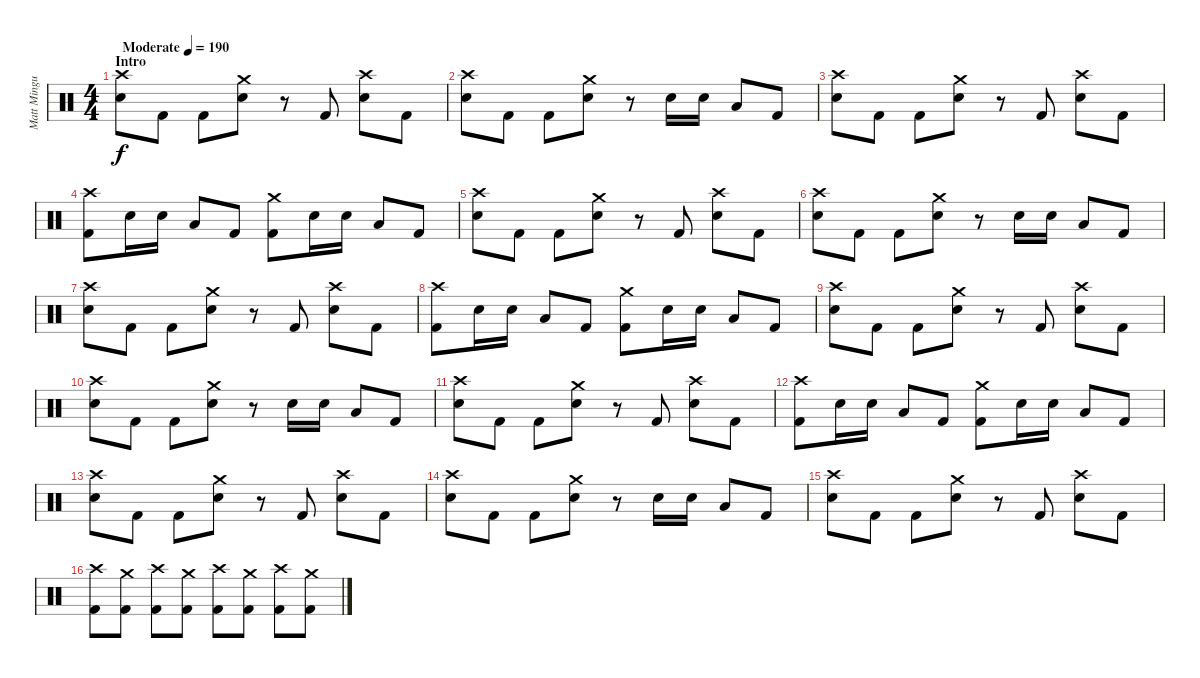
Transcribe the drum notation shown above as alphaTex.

\track ("Matt Mingus (Drums)" "Matt Mingu") {instrument percussion}
\staff {score}
\articulation defaults
\ts (4 4)
\section ("" "Intro")
\tempo (190 "Moderate")
\clef neutral
\ks c
("Crash high (hit)" "Electric Snare (hit)").8{dy f} "Kick (hit) 2".8 "Kick (hit) 2".8 ("Crash medium (hit)" "Electric Snare (hit)").8 r.8 "Kick (hit) 2".8 ("Crash high (hit)" "Electric Snare (hit)").8 "Kick (hit) 2".8 |
("Crash high (hit)" "Electric Snare (hit)").8 "Kick (hit) 2".8 "Kick (hit) 2".8 ("Crash medium (hit)" "Electric Snare (hit)").8 r.8 "Electric Snare (hit)".16 "Electric Snare (hit)".16 "Low Tom (hit)".8 "Kick (hit) 2".8 |
("Crash high (hit)" "Electric Snare (hit)").8 "Kick (hit) 2".8 "Kick (hit) 2".8 ("Crash medium (hit)" "Electric Snare (hit)").8 r.8 "Kick (hit) 2".8 ("Crash high (hit)" "Electric Snare (hit)").8 "Kick (hit) 2".8 |
("Crash high (hit)" "Kick (hit) 2").8 "Electric Snare (hit)".16 "Electric Snare (hit)".16 "Low Tom (hit)".8 "Kick (hit) 2".8 ("Crash medium (hit)" "Kick (hit) 2").8 "Electric Snare (hit)".16 "Electric Snare (hit)".16 "Low Tom (hit)".8 "Kick (hit) 2".8 |
("Crash high (hit)" "Electric Snare (hit)").8 "Kick (hit) 2".8 "Kick (hit) 2".8 ("Crash medium (hit)" "Electric Snare (hit)").8 r.8 "Kick (hit) 2".8 ("Crash high (hit)" "Electric Snare (hit)").8 "Kick (hit) 2".8 |
("Crash high (hit)" "Electric Snare (hit)").8 "Kick (hit) 2".8 "Kick (hit) 2".8 ("Crash medium (hit)" "Electric Snare (hit)").8 r.8 "Electric Snare (hit)".16 "Electric Snare (hit)".16 "Low Tom (hit)".8 "Kick (hit) 2".8 |
("Crash high (hit)" "Electric Snare (hit)").8 "Kick (hit) 2".8 "Kick (hit) 2".8 ("Crash medium (hit)" "Electric Snare (hit)").8 r.8 "Kick (hit) 2".8 ("Crash high (hit)" "Electric Snare (hit)").8 "Kick (hit) 2".8 |
("Crash high (hit)" "Kick (hit) 2").8 "Electric Snare (hit)".16 "Electric Snare (hit)".16 "Low Tom (hit)".8 "Kick (hit) 2".8 ("Crash medium (hit)" "Kick (hit) 2").8 "Electric Snare (hit)".16 "Electric Snare (hit)".16 "Low Tom (hit)".8 "Kick (hit) 2".8 |
("Crash high (hit)" "Electric Snare (hit)").8 "Kick (hit) 2".8 "Kick (hit) 2".8 ("Crash medium (hit)" "Electric Snare (hit)").8 r.8 "Kick (hit) 2".8 ("Crash high (hit)" "Electric Snare (hit)").8 "Kick (hit) 2".8 |
("Crash high (hit)" "Electric Snare (hit)").8 "Kick (hit) 2".8 "Kick (hit) 2".8 ("Crash medium (hit)" "Electric Snare (hit)").8 r.8 "Electric Snare (hit)".16 "Electric Snare (hit)".16 "Low Tom (hit)".8 "Kick (hit) 2".8 |
("Crash high (hit)" "Electric Snare (hit)").8 "Kick (hit) 2".8 "Kick (hit) 2".8 ("Crash medium (hit)" "Electric Snare (hit)").8 r.8 "Kick (hit) 2".8 ("Crash high (hit)" "Electric Snare (hit)").8 "Kick (hit) 2".8 |
("Crash high (hit)" "Kick (hit) 2").8 "Electric Snare (hit)".16 "Electric Snare (hit)".16 "Low Tom (hit)".8 "Kick (hit) 2".8 ("Crash medium (hit)" "Kick (hit) 2").8 "Electric Snare (hit)".16 "Electric Snare (hit)".16 "Low Tom (hit)".8 "Kick (hit) 2".8 |
("Crash high (hit)" "Electric Snare (hit)").8 "Kick (hit) 2".8 "Kick (hit) 2".8 ("Crash medium (hit)" "Electric Snare (hit)").8 r.8 "Kick (hit) 2".8 ("Crash high (hit)" "Electric Snare (hit)").8 "Kick (hit) 2".8 |
("Crash high (hit)" "Electric Snare (hit)").8 "Kick (hit) 2".8 "Kick (hit) 2".8 ("Crash medium (hit)" "Electric Snare (hit)").8 r.8 "Electric Snare (hit)".16 "Electric Snare (hit)".16 "Low Tom (hit)".8 "Kick (hit) 2".8 |
("Crash high (hit)" "Electric Snare (hit)").8 "Kick (hit) 2".8 "Kick (hit) 2".8 ("Crash medium (hit)" "Electric Snare (hit)").8 r.8 "Kick (hit) 2".8 ("Crash high (hit)" "Electric Snare (hit)").8 "Kick (hit) 2".8 |
("Crash high (hit)" "Kick (hit) 2").8 ("Crash medium (hit)" "Kick (hit) 2").8 ("Crash high (hit)" "Kick (hit) 2").8 ("Crash medium (hit)" "Kick (hit) 2").8 ("Crash high (hit)" "Kick (hit) 2").8 ("Crash medium (hit)" "Kick (hit) 2").8 ("Crash high (hit)" "Kick (hit) 2").8 ("Crash medium (hit)" "Kick (hit) 2").8
